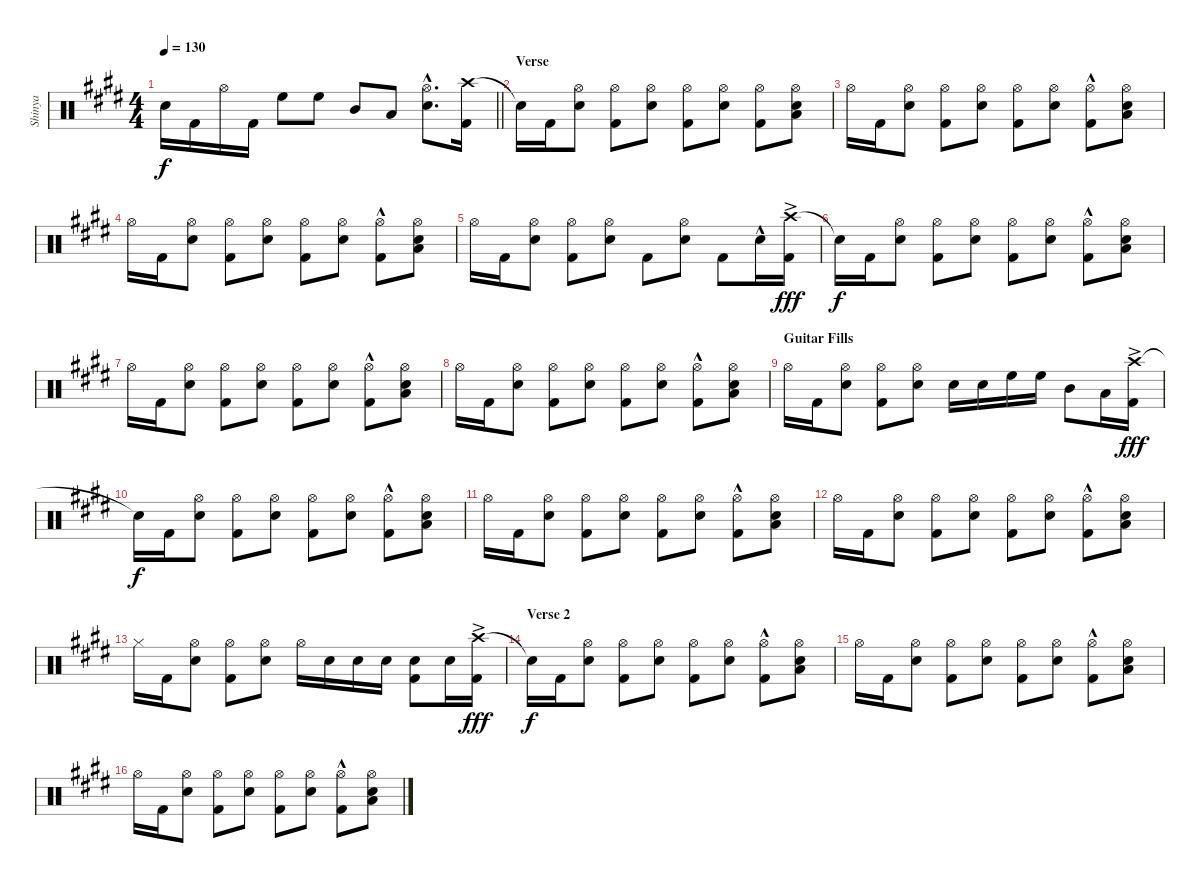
\track ("Shinya" "Shinya") {instrument percussion}
\staff {score}
\articulation defaults
\ts (4 4)
\tempo 130
\clef neutral
\barLineRight lightlight
\ks e "Snare (hit)"{t}.16{dy f} "Kick (hit) 2".16 "Hi-Hat (open)".16 "Kick (hit) 2".16 "High Floor Tom (hit)".8 "High Floor Tom (hit)".8 "Mid Tom (hit)".8 "Low Tom (hit)".8
("Hi-Hat (open)"{hac} "Snare (hit) 2"{hac}).8{d} ("Crash high (hit)" "Kick (hit) 2").16 |
\section ("" "Verse")
"Snare (hit)"{t}.16 "Kick (hit) 2".16 ("Hi-Hat (open)" "Snare (hit) 2").8 ("Hi-Hat (open)" "Kick (hit) 2").8 ("Hi-Hat (open)" "Snare (hit) 2").8 ("Hi-Hat (open)" "Kick (hit) 2").8 ("Hi-Hat (open)" "Snare (hit) 2").8 ("Hi-Hat (open)" "Kick (hit) 2").8 ("Hi-Hat (open)" "Low Floor Tom (hit)" "Snare (hit) 2").8 |
"Hi-Hat (open)".16 "Kick (hit) 2".16 ("Hi-Hat (open)" "Snare (hit) 2").8 ("Hi-Hat (open)" "Kick (hit) 2").8 ("Hi-Hat (open)" "Snare (hit) 2").8 ("Hi-Hat (open)" "Kick (hit) 2").8 ("Hi-Hat (open)" "Snare (hit) 2").8 ("Hi-Hat (open)" "Kick (hit) 2"{hac}).8 ("Hi-Hat (open)" "Low Floor Tom (hit)" "Snare (hit) 2").8 |
"Hi-Hat (open)".16 "Kick (hit) 2".16 ("Hi-Hat (open)" "Snare (hit) 2").8 ("Hi-Hat (open)" "Kick (hit) 2").8 ("Hi-Hat (open)" "Snare (hit) 2").8 ("Hi-Hat (open)" "Kick (hit) 2").8 ("Hi-Hat (open)" "Snare (hit) 2").8 ("Hi-Hat (open)" "Kick (hit) 2"{hac}).8 ("Hi-Hat (open)" "Low Floor Tom (hit)" "Snare (hit) 2").8 |
"Hi-Hat (open)".16 "Kick (hit) 2".16 ("Hi-Hat (open)" "Snare (hit) 2").8 ("Hi-Hat (open)" "Kick (hit) 2").8 ("Hi-Hat (open)" "Snare (hit) 2").8 "Kick (hit) 2".8 ("Hi-Hat (open)" "Snare (hit) 2").8 "Kick (hit) 2".8 "Snare (hit) 2"{hac}.16 ("Crash high (hit)"{ac} "Kick (hit) 2").16{dy fff} |
"Snare (hit)"{t}.16{dy f} "Kick (hit) 2".16 ("Hi-Hat (open)" "Snare (hit) 2").8 ("Hi-Hat (open)" "Kick (hit) 2").8 ("Hi-Hat (open)" "Snare (hit) 2").8 ("Hi-Hat (open)" "Kick (hit) 2").8 ("Hi-Hat (open)" "Snare (hit) 2").8 ("Hi-Hat (open)" "Kick (hit) 2"{hac}).8 ("Hi-Hat (open)" "Low Floor Tom (hit)" "Snare (hit) 2").8 |
"Hi-Hat (open)".16 "Kick (hit) 2".16 ("Hi-Hat (open)" "Snare (hit) 2").8 ("Hi-Hat (open)" "Kick (hit) 2").8 ("Hi-Hat (open)" "Snare (hit) 2").8 ("Hi-Hat (open)" "Kick (hit) 2").8 ("Hi-Hat (open)" "Snare (hit) 2").8 ("Hi-Hat (open)" "Kick (hit) 2"{hac}).8 ("Hi-Hat (open)" "Low Floor Tom (hit)" "Snare (hit) 2").8 |
"Hi-Hat (open)".16 "Kick (hit) 2".16 ("Hi-Hat (open)" "Snare (hit) 2").8 ("Hi-Hat (open)" "Kick (hit) 2").8 ("Hi-Hat (open)" "Snare (hit) 2").8 ("Hi-Hat (open)" "Kick (hit) 2").8 ("Hi-Hat (open)" "Snare (hit) 2").8 ("Hi-Hat (open)" "Kick (hit) 2"{hac}).8 ("Hi-Hat (open)" "Low Floor Tom (hit)" "Snare (hit) 2").8 |
\section ("" "Guitar Fills")
"Hi-Hat (open)".16 "Kick (hit) 2".16 ("Hi-Hat (open)" "Snare (hit) 2").8 ("Hi-Hat (open)" "Kick (hit) 2").8 ("Hi-Hat (open)" "Snare (hit) 2").8 "Snare (hit) 2".16 "Snare (hit) 2".16 "High Floor Tom (hit)".16 "High Floor Tom (hit)".16 "Mid Tom (hit)".8 "Low Tom (hit)".16 ("Crash high (hit)"{ac} "Kick (hit) 2").16{dy fff} |
"Snare (hit)"{t}.16{dy f} "Kick (hit) 2".16 ("Hi-Hat (open)" "Snare (hit) 2").8 ("Hi-Hat (open)" "Kick (hit) 2").8 ("Hi-Hat (open)" "Snare (hit) 2").8 ("Hi-Hat (open)" "Kick (hit) 2").8 ("Hi-Hat (open)" "Snare (hit) 2").8 ("Hi-Hat (open)" "Kick (hit) 2"{hac}).8 ("Hi-Hat (open)" "Low Floor Tom (hit)" "Snare (hit) 2").8 |
"Hi-Hat (open)".16 "Kick (hit) 2".16 ("Hi-Hat (open)" "Snare (hit) 2").8 ("Hi-Hat (open)" "Kick (hit) 2").8 ("Hi-Hat (open)" "Snare (hit) 2").8 ("Hi-Hat (open)" "Kick (hit) 2").8 ("Hi-Hat (open)" "Snare (hit) 2").8 ("Hi-Hat (open)" "Kick (hit) 2"{hac}).8 ("Hi-Hat (open)" "Low Floor Tom (hit)" "Snare (hit) 2").8 |
"Hi-Hat (open)".16 "Kick (hit) 2".16 ("Hi-Hat (open)" "Snare (hit) 2").8 ("Hi-Hat (open)" "Kick (hit) 2").8 ("Hi-Hat (open)" "Snare (hit) 2").8 ("Hi-Hat (open)" "Kick (hit) 2").8 ("Hi-Hat (open)" "Snare (hit) 2").8 ("Hi-Hat (open)" "Kick (hit) 2"{hac}).8 ("Hi-Hat (open)" "Low Floor Tom (hit)" "Snare (hit) 2").8 |
"Hi-Hat (closed)".16 "Kick (hit) 2".16 ("Hi-Hat (open)" "Snare (hit) 2").8 ("Hi-Hat (open)" "Kick (hit) 2").8 ("Hi-Hat (open)" "Snare (hit) 2").8 "Hi-Hat (open)".16 "Snare (hit) 2".16 "Snare (hit) 2".16 "Snare (hit) 2".16 ("Snare (hit) 2" "Kick (hit) 2").8 "Snare (hit) 2".16 ("Crash high (hit)"{ac} "Kick (hit) 2").16{dy fff} |
\section ("" "Verse 2")
"Snare (hit)"{t}.16{dy f} "Kick (hit) 2".16 ("Hi-Hat (open)" "Snare (hit) 2").8 ("Hi-Hat (open)" "Kick (hit) 2").8 ("Hi-Hat (open)" "Snare (hit) 2").8 ("Hi-Hat (open)" "Kick (hit) 2").8 ("Hi-Hat (open)" "Snare (hit) 2").8 ("Hi-Hat (open)" "Kick (hit) 2"{hac}).8 ("Hi-Hat (open)" "Low Floor Tom (hit)" "Snare (hit) 2").8 |
"Hi-Hat (open)".16 "Kick (hit) 2".16 ("Hi-Hat (open)" "Snare (hit) 2").8 ("Hi-Hat (open)" "Kick (hit) 2").8 ("Hi-Hat (open)" "Snare (hit) 2").8 ("Hi-Hat (open)" "Kick (hit) 2").8 ("Hi-Hat (open)" "Snare (hit) 2").8 ("Hi-Hat (open)" "Kick (hit) 2"{hac}).8 ("Hi-Hat (open)" "Low Floor Tom (hit)" "Snare (hit) 2").8 |
"Hi-Hat (open)".16 "Kick (hit) 2".16 ("Hi-Hat (open)" "Snare (hit) 2").8 ("Hi-Hat (open)" "Kick (hit) 2").8 ("Hi-Hat (open)" "Snare (hit) 2").8 ("Hi-Hat (open)" "Kick (hit) 2").8 ("Hi-Hat (open)" "Snare (hit) 2").8 ("Hi-Hat (open)" "Kick (hit) 2"{hac}).8 ("Hi-Hat (open)" "Low Floor Tom (hit)" "Snare (hit) 2").8
